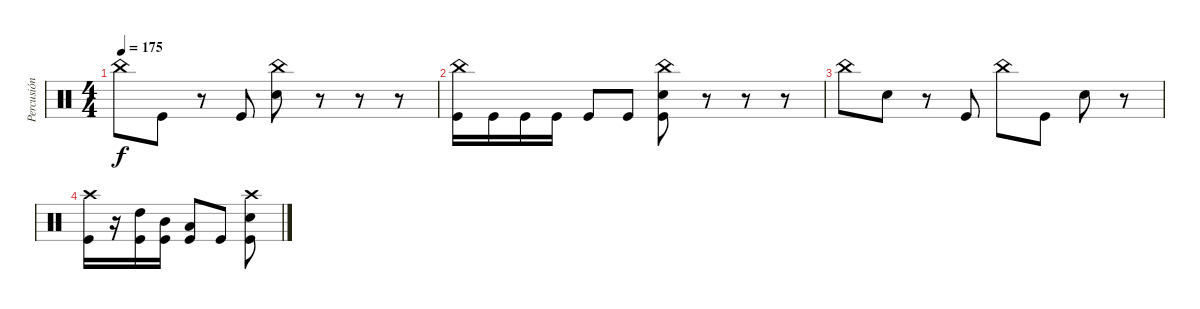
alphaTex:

\track ("Percusión" "Percusión") {instrument percussion}
\staff {score}
\articulation defaults
\ts (4 4)
\tempo 175
\clef neutral
\ks c "China (hit)".8{dy f} "Kick (hit)".8
r.8 "Kick (hit)".8 ("China (hit)" "Snare (hit) 2").8 r.8 r.8 r.8 |
("China (hit)" "Kick (hit)").16 "Kick (hit)".16 "Kick (hit)".16 "Kick (hit)".16 "Kick (hit)".8 "Kick (hit)".8 ("China (hit)" "Kick (hit)" "Snare (hit) 2").8 r.8 r.8 r.8 |
"China (hit)".8 "Snare (hit) 2".8 r.8 "Kick (hit)".8 "China (hit)".8 "Kick (hit)".8 "Snare (hit) 2".8 r.8 |
("Crash high (hit)" "Kick (hit)").16 r.16 ("Kick (hit)" "High Tom (hit)").16 ("Kick (hit)" "Mid Tom (hit)").16 ("Kick (hit)" "Low Tom (hit)").8 "Kick (hit)".8 ("Crash high (hit)" "Kick (hit)" "Snare (hit) 2").8
